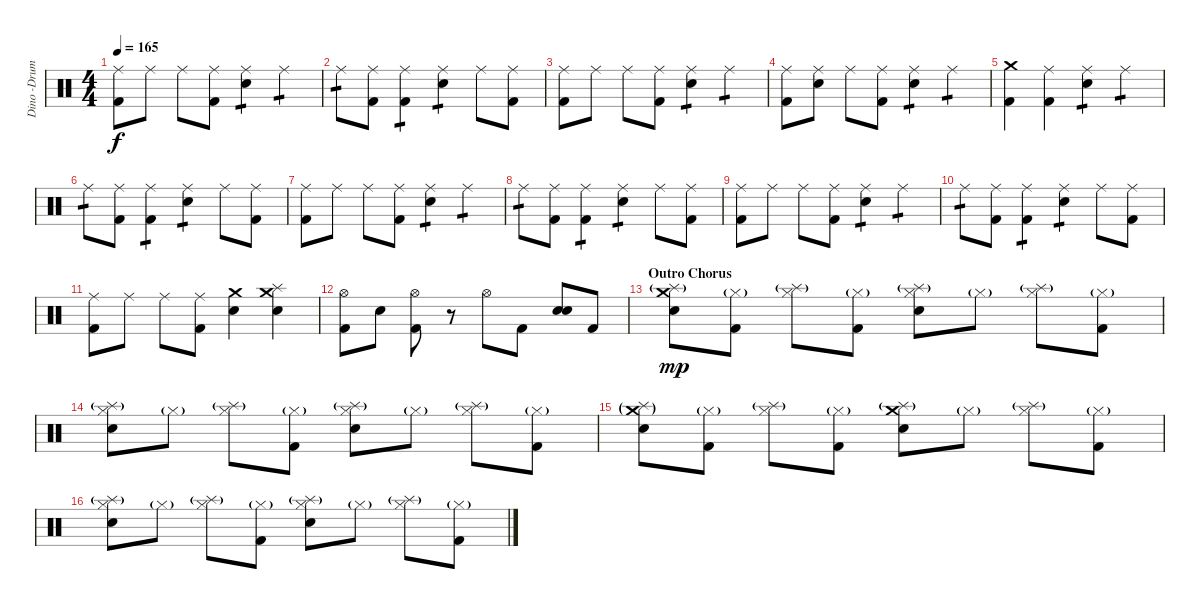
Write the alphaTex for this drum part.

\track ("Dino -Drums" "Dino -Drum") {instrument percussion}
\staff {score}
\articulation defaults
\ts (4 4)
\tempo 165
\clef neutral
\ks c
("Ride (middle)" "Kick (hit) 2").8{dy f} "Ride (middle)".8 "Ride (middle)".8 ("Ride (middle)" "Kick (hit) 2").8 ("Ride (middle)" "Electric Snare (hit)").4{tp 1} "Ride (middle)".4{tp 1} |
"Ride (middle)".8{tp 1} ("Ride (middle)" "Kick (hit) 2").8 ("Ride (middle)" "Kick (hit) 2").4{tp 1} ("Ride (middle)" "Electric Snare (hit)").4{tp 1} "Ride (middle)".8 ("Ride (middle)" "Kick (hit) 2").8 |
("Ride (middle)" "Kick (hit) 2").8 "Ride (middle)".8 "Ride (middle)".8 ("Ride (middle)" "Kick (hit) 2").8 ("Ride (middle)" "Electric Snare (hit)").4{tp 1} "Ride (middle)".4{tp 1} |
("Ride (middle)" "Kick (hit) 2").8 ("Ride (middle)" "Electric Snare (hit)").8 "Ride (middle)".8 ("Ride (middle)" "Kick (hit) 2").8 ("Ride (middle)" "Electric Snare (hit)").4{tp 1} "Ride (middle)".4{tp 1} |
("Crash medium (hit)" "Kick (hit) 2").4 ("Ride (middle)" "Kick (hit) 2").4 ("Ride (middle)" "Electric Snare (hit)").4{tp 1} "Ride (middle)".4{tp 1} |
"Ride (middle)".8{tp 1} ("Ride (middle)" "Kick (hit) 2").8 ("Ride (middle)" "Kick (hit) 2").4{tp 1} ("Ride (middle)" "Electric Snare (hit)").4{tp 1} "Ride (middle)".8 ("Ride (middle)" "Kick (hit) 2").8 |
("Ride (middle)" "Kick (hit) 2").8 "Ride (middle)".8 "Ride (middle)".8 ("Ride (middle)" "Kick (hit) 2").8 ("Ride (middle)" "Electric Snare (hit)").4{tp 1} "Ride (middle)".4{tp 1} |
"Ride (middle)".8{tp 1} ("Ride (middle)" "Kick (hit) 2").8 ("Ride (middle)" "Kick (hit) 2").4{tp 1} ("Ride (middle)" "Electric Snare (hit)").4{tp 1} "Ride (middle)".8 ("Ride (middle)" "Kick (hit) 2").8 |
("Ride (middle)" "Kick (hit) 2").8 "Ride (middle)".8 "Ride (middle)".8 ("Ride (middle)" "Kick (hit) 2").8 ("Ride (middle)" "Electric Snare (hit)").4{tp 1} "Ride (middle)".4{tp 1} |
"Ride (middle)".8{tp 1} ("Ride (middle)" "Kick (hit) 2").8 ("Ride (middle)" "Kick (hit) 2").4{tp 1} ("Ride (middle)" "Electric Snare (hit)").4{tp 1} "Ride (middle)".8 ("Ride (middle)" "Kick (hit) 2").8 |
("Ride (middle)" "Kick (hit) 2").8 "Ride (middle)".8 "Ride (middle)".8 ("Ride (middle)" "Kick (hit) 2").8 ("Crash medium (hit)" "Electric Snare (hit)").4 ("Crash medium (hit)" "Splash (hit)" "Electric Snare (hit)").4 |
("Hi-Hat (open)" "Kick (hit) 2").8 "Electric Snare (hit)".8 ("Hi-Hat (open)" "Kick (hit) 2").8 r.8 "Hi-Hat (open)".8 "Kick (hit) 2".8 ("Electric Snare (hit)" "Electric Snare (hit)").8{bd 480} "Kick (hit) 2".8 |
\section ("" "Outro Chorus")
("Crash medium (hit)" "Splash (hit)"{g} "Electric Snare (hit)").8{dy mp} ("Hi-Hat (closed)"{g} "Kick (hit) 2").8 ("Hi-Hat (closed)" "Splash (hit)"{g}).8 ("Hi-Hat (closed)"{g} "Kick (hit) 2").8 ("Hi-Hat (closed)" "Splash (hit)"{g} "Electric Snare (hit)").8 "Hi-Hat (closed)"{g}.8 ("Hi-Hat (closed)" "Splash (hit)"{g}).8 ("Hi-Hat (closed)"{g} "Kick (hit) 2").8 |
("Hi-Hat (closed)" "Splash (hit)"{g} "Electric Snare (hit)").8 "Hi-Hat (closed)"{g}.8 ("Hi-Hat (closed)" "Splash (hit)"{g}).8 ("Hi-Hat (closed)"{g} "Kick (hit) 2").8 ("Hi-Hat (closed)" "Splash (hit)"{g} "Electric Snare (hit)").8 "Hi-Hat (closed)"{g}.8 ("Hi-Hat (closed)" "Splash (hit)"{g}).8 ("Hi-Hat (closed)"{g} "Kick (hit) 2").8 |
("Crash medium (hit)"{g} "Splash (hit)"{g} "Electric Snare (hit)").8 ("Hi-Hat (closed)"{g} "Kick (hit) 2").8 ("Hi-Hat (closed)" "Splash (hit)"{g}).8 ("Hi-Hat (closed)"{g} "Kick (hit) 2").8 ("Crash medium (hit)" "Splash (hit)"{g} "Electric Snare (hit)").8 "Hi-Hat (closed)"{g}.8 ("Hi-Hat (closed)" "Splash (hit)"{g}).8 ("Hi-Hat (closed)"{g} "Kick (hit) 2").8 |
("Hi-Hat (closed)" "Splash (hit)"{g} "Electric Snare (hit)").8 "Hi-Hat (closed)"{g}.8 ("Hi-Hat (closed)" "Splash (hit)"{g}).8 ("Hi-Hat (closed)"{g} "Kick (hit) 2").8 ("Hi-Hat (closed)" "Splash (hit)"{g} "Electric Snare (hit)").8 "Hi-Hat (closed)"{g}.8 ("Hi-Hat (closed)" "Splash (hit)"{g}).8 ("Hi-Hat (closed)"{g} "Kick (hit) 2").8
